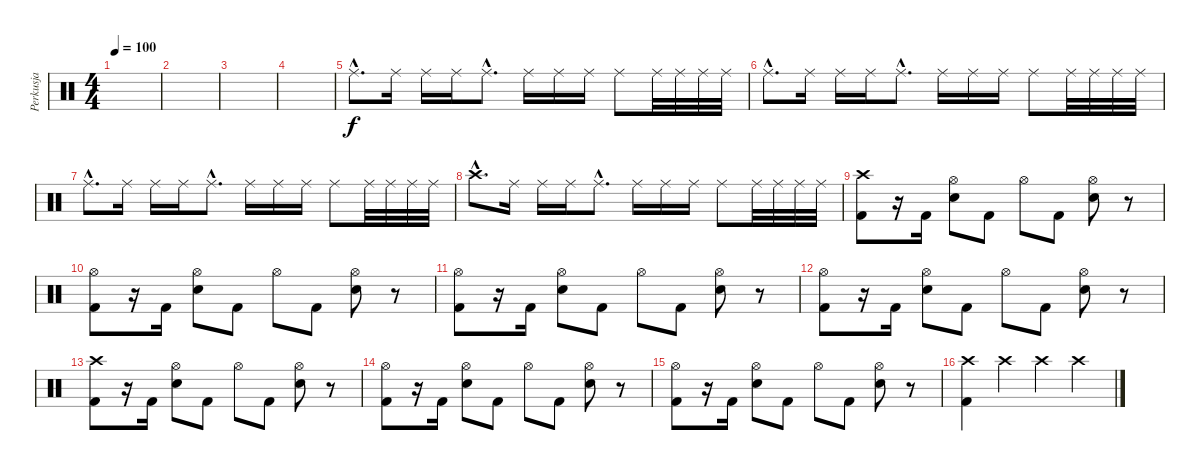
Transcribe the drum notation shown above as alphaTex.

\track ("Perkusja" "Perkusja") {instrument percussion}
\staff {score}
\articulation defaults
\ts (4 4)
\tempo 100
\clef neutral
\ks c
|
|
|
|
"Ride (middle)"{hac}.8{d} "Ride (middle)".16 "Ride (middle)".16 "Ride (middle)".16 "Ride (middle)"{hac}.8{d} "Ride (middle)".16 "Ride (middle)".16 "Ride (middle)".16 "Ride (middle)".8 "Ride (middle)".32 "Ride (middle)".32 "Ride (middle)".32 "Ride (middle)".32 |
"Ride (middle)"{hac}.8{d} "Ride (middle)".16 "Ride (middle)".16 "Ride (middle)".16 "Ride (middle)"{hac}.8{d} "Ride (middle)".16 "Ride (middle)".16 "Ride (middle)".16 "Ride (middle)".8 "Ride (middle)".32 "Ride (middle)".32 "Ride (middle)".32 "Ride (middle)".32 |
"Ride (middle)"{hac}.8{d} "Ride (middle)".16 "Ride (middle)".16 "Ride (middle)".16 "Ride (middle)"{hac}.8{d} "Ride (middle)".16 "Ride (middle)".16 "Ride (middle)".16 "Ride (middle)".8 "Ride (middle)".32 "Ride (middle)".32 "Ride (middle)".32 "Ride (middle)".32 |
"Crash high (hit)"{hac}.8{d} "Ride (middle)".16 "Ride (middle)".16 "Ride (middle)".16 "Ride (middle)"{hac}.8{d} "Ride (middle)".16 "Ride (middle)".16 "Ride (middle)".16 "Ride (middle)".8 "Ride (middle)".32 "Ride (middle)".32 "Ride (middle)".32 "Ride (middle)".32 |
("Crash high (hit)" "Kick (hit) 2").8 r.16 "Kick (hit) 2".16 ("Hi-Hat (open)" "Electric Snare (hit)").8 "Kick (hit) 2".8 "Hi-Hat (open)".8 "Kick (hit) 2".8 ("Hi-Hat (open)" "Electric Snare (hit)").8 r.8 |
("Hi-Hat (open)" "Kick (hit) 2").8 r.16 "Kick (hit) 2".16 ("Hi-Hat (open)" "Electric Snare (hit)").8 "Kick (hit) 2".8 "Hi-Hat (open)".8 "Kick (hit) 2".8 ("Hi-Hat (open)" "Electric Snare (hit)").8 r.8 |
("Hi-Hat (open)" "Kick (hit) 2").8 r.16 "Kick (hit) 2".16 ("Hi-Hat (open)" "Electric Snare (hit)").8 "Kick (hit) 2".8 "Hi-Hat (open)".8 "Kick (hit) 2".8 ("Hi-Hat (open)" "Electric Snare (hit)").8 r.8 |
("Hi-Hat (open)" "Kick (hit) 2").8 r.16 "Kick (hit) 2".16 ("Hi-Hat (open)" "Electric Snare (hit)").8 "Kick (hit) 2".8 "Hi-Hat (open)".8 "Kick (hit) 2".8 ("Hi-Hat (open)" "Electric Snare (hit)").8 r.8 |
("Crash high (hit)" "Kick (hit) 2").8 r.16 "Kick (hit) 2".16 ("Hi-Hat (open)" "Electric Snare (hit)").8 "Kick (hit) 2".8 "Hi-Hat (open)".8 "Kick (hit) 2".8 ("Hi-Hat (open)" "Electric Snare (hit)").8 r.8 |
("Hi-Hat (open)" "Kick (hit) 2").8 r.16 "Kick (hit) 2".16 ("Hi-Hat (open)" "Electric Snare (hit)").8 "Kick (hit) 2".8 "Hi-Hat (open)".8 "Kick (hit) 2".8 ("Hi-Hat (open)" "Electric Snare (hit)").8 r.8 |
("Hi-Hat (open)" "Kick (hit) 2").8 r.16 "Kick (hit) 2".16 ("Hi-Hat (open)" "Electric Snare (hit)").8 "Kick (hit) 2".8 "Hi-Hat (open)".8 "Kick (hit) 2".8 ("Hi-Hat (open)" "Electric Snare (hit)").8 r.8 |
("Crash high (hit)" "Kick (hit) 2").4 "Crash high (hit)".4 "Crash high (hit)".4 "Crash high (hit)".4
